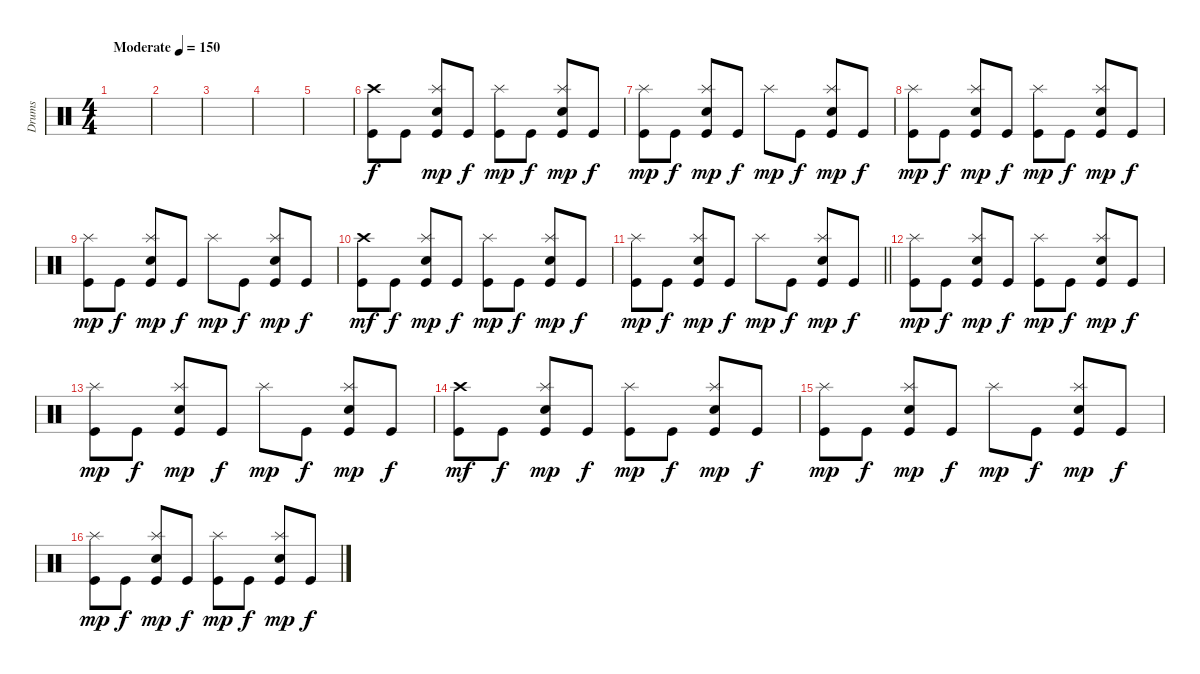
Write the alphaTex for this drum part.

\track ("Drums" "Drums") {instrument percussion}
\staff {score}
\articulation defaults
\ts (4 4)
\tempo (150 "Moderate")
\clef neutral
\ks c
|
|
|
|
|
("Crash high (hit)" "Kick (hit)").8 "Kick (hit)".8{dy f} ("Splash (hit)" "Snare (hit) 2" "Kick (hit)").8{dy mp} "Kick (hit)".8{dy f} ("Splash (hit)" "Kick (hit)").8{dy mp} "Kick (hit)".8{dy f} ("Splash (hit)" "Snare (hit) 2" "Kick (hit)").8{dy mp} "Kick (hit)".8{dy f} |
("Splash (hit)" "Kick (hit)").8{dy mp} "Kick (hit)".8{dy f} ("Splash (hit)" "Snare (hit) 2" "Kick (hit)").8{dy mp} "Kick (hit)".8{dy f} "Splash (hit)".8{dy mp} "Kick (hit)".8{dy f} ("Splash (hit)" "Snare (hit) 2" "Kick (hit)").8{dy mp} "Kick (hit)".8{dy f} |
("Splash (hit)" "Kick (hit)").8{dy mp} "Kick (hit)".8{dy f} ("Splash (hit)" "Snare (hit) 2" "Kick (hit)").8{dy mp} "Kick (hit)".8{dy f} ("Splash (hit)" "Kick (hit)").8{dy mp} "Kick (hit)".8{dy f} ("Splash (hit)" "Snare (hit) 2" "Kick (hit)").8{dy mp} "Kick (hit)".8{dy f} |
("Splash (hit)" "Kick (hit)").8{dy mp} "Kick (hit)".8{dy f} ("Splash (hit)" "Snare (hit) 2" "Kick (hit)").8{dy mp} "Kick (hit)".8{dy f} "Splash (hit)".8{dy mp} "Kick (hit)".8{dy f} ("Splash (hit)" "Snare (hit) 2" "Kick (hit)").8{dy mp} "Kick (hit)".8{dy f} |
("Crash high (hit)" "Kick (hit)").8{dy mf} "Kick (hit)".8{dy f} ("Splash (hit)" "Snare (hit) 2" "Kick (hit)").8{dy mp} "Kick (hit)".8{dy f} ("Splash (hit)" "Kick (hit)").8{dy mp} "Kick (hit)".8{dy f} ("Splash (hit)" "Snare (hit) 2" "Kick (hit)").8{dy mp} "Kick (hit)".8{dy f} |
\barLineRight lightlight
("Splash (hit)" "Kick (hit)").8{dy mp} "Kick (hit)".8{dy f} ("Splash (hit)" "Snare (hit) 2" "Kick (hit)").8{dy mp} "Kick (hit)".8{dy f} "Splash (hit)".8{dy mp} "Kick (hit)".8{dy f} ("Splash (hit)" "Snare (hit) 2" "Kick (hit)").8{dy mp} "Kick (hit)".8{dy f} |
("Splash (hit)" "Kick (hit)").8{dy mp} "Kick (hit)".8{dy f} ("Splash (hit)" "Snare (hit) 2" "Kick (hit)").8{dy mp} "Kick (hit)".8{dy f} ("Splash (hit)" "Kick (hit)").8{dy mp} "Kick (hit)".8{dy f} ("Splash (hit)" "Snare (hit) 2" "Kick (hit)").8{dy mp} "Kick (hit)".8{dy f} |
("Splash (hit)" "Kick (hit)").8{dy mp} "Kick (hit)".8{dy f} ("Splash (hit)" "Snare (hit) 2" "Kick (hit)").8{dy mp} "Kick (hit)".8{dy f} "Splash (hit)".8{dy mp} "Kick (hit)".8{dy f} ("Splash (hit)" "Snare (hit) 2" "Kick (hit)").8{dy mp} "Kick (hit)".8{dy f} |
("Crash high (hit)" "Kick (hit)").8{dy mf} "Kick (hit)".8{dy f} ("Splash (hit)" "Snare (hit) 2" "Kick (hit)").8{dy mp} "Kick (hit)".8{dy f} ("Splash (hit)" "Kick (hit)").8{dy mp} "Kick (hit)".8{dy f} ("Splash (hit)" "Snare (hit) 2" "Kick (hit)").8{dy mp} "Kick (hit)".8{dy f} |
("Splash (hit)" "Kick (hit)").8{dy mp} "Kick (hit)".8{dy f} ("Splash (hit)" "Snare (hit) 2" "Kick (hit)").8{dy mp} "Kick (hit)".8{dy f} "Splash (hit)".8{dy mp} "Kick (hit)".8{dy f} ("Splash (hit)" "Snare (hit) 2" "Kick (hit)").8{dy mp} "Kick (hit)".8{dy f} |
("Splash (hit)" "Kick (hit)").8{dy mp} "Kick (hit)".8{dy f} ("Splash (hit)" "Snare (hit) 2" "Kick (hit)").8{dy mp} "Kick (hit)".8{dy f} ("Splash (hit)" "Kick (hit)").8{dy mp} "Kick (hit)".8{dy f} ("Splash (hit)" "Snare (hit) 2" "Kick (hit)").8{dy mp} "Kick (hit)".8{dy f}
